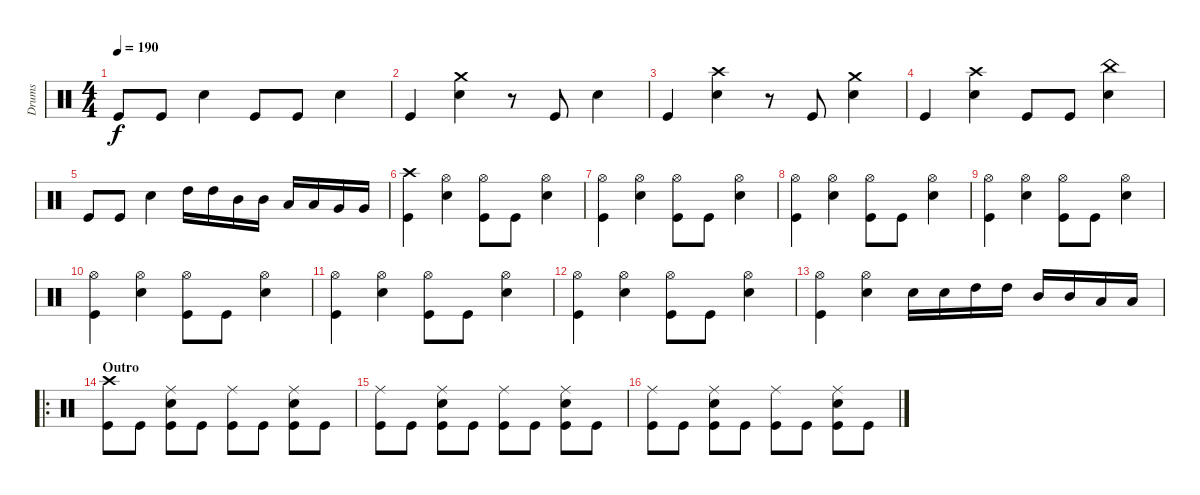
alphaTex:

\track ("Drums" "Drums") {instrument percussion}
\staff {score}
\articulation defaults
\ts (4 4)
\tempo 190
\clef neutral
\ks c "Kick (hit)".8{dy f} "Kick (hit)".8 "Electric Snare (hit)".4 "Kick (hit)".8 "Kick (hit)".8 "Electric Snare (hit)".4
|
"Kick (hit)".4 ("Crash medium (hit)" "Electric Snare (hit)").4 r.8 "Kick (hit)".8 "Electric Snare (hit)".4 |
"Kick (hit)".4 ("Crash high (hit)" "Electric Snare (hit)").4 r.8 "Kick (hit)".8 ("Crash medium (hit)" "Electric Snare (hit)").4 |
"Kick (hit)".4 ("Crash high (hit)" "Electric Snare (hit)").4 "Kick (hit)".8 "Kick (hit)".8 ("China (hit)" "Electric Snare (hit)").4 |
"Kick (hit)".8 "Kick (hit)".8 "Electric Snare (hit)".4 "High Tom (hit)".16 "High Tom (hit)".16 "Mid Tom (hit)".16 "Mid Tom (hit)".16 "Low Tom (hit)".16 "Low Tom (hit)".16 "Very Low Tom (hit)".16 "Very Low Tom (hit)".16 |
("Crash high (hit)" "Kick (hit)").4 ("Hi-Hat (open)" "Electric Snare (hit)").4 ("Hi-Hat (open)" "Kick (hit)").8 "Kick (hit)".8 ("Hi-Hat (open)" "Electric Snare (hit)").4 |
("Hi-Hat (open)" "Kick (hit)").4 ("Hi-Hat (open)" "Electric Snare (hit)").4 ("Hi-Hat (open)" "Kick (hit)").8 "Kick (hit)".8 ("Hi-Hat (open)" "Electric Snare (hit)").4 |
("Hi-Hat (open)" "Kick (hit)").4 ("Hi-Hat (open)" "Electric Snare (hit)").4 ("Hi-Hat (open)" "Kick (hit)").8 "Kick (hit)".8 ("Hi-Hat (open)" "Electric Snare (hit)").4 |
("Hi-Hat (open)" "Kick (hit)").4 ("Hi-Hat (open)" "Electric Snare (hit)").4 ("Hi-Hat (open)" "Kick (hit)").8 "Kick (hit)".8 ("Hi-Hat (open)" "Electric Snare (hit)").4 |
("Hi-Hat (open)" "Kick (hit)").4 ("Hi-Hat (open)" "Electric Snare (hit)").4 ("Hi-Hat (open)" "Kick (hit)").8 "Kick (hit)".8 ("Hi-Hat (open)" "Electric Snare (hit)").4 |
("Hi-Hat (open)" "Kick (hit)").4 ("Hi-Hat (open)" "Electric Snare (hit)").4 ("Hi-Hat (open)" "Kick (hit)").8 "Kick (hit)".8 ("Hi-Hat (open)" "Electric Snare (hit)").4 |
("Hi-Hat (open)" "Kick (hit)").4 ("Hi-Hat (open)" "Electric Snare (hit)").4 ("Hi-Hat (open)" "Kick (hit)").8 "Kick (hit)".8 ("Hi-Hat (open)" "Electric Snare (hit)").4 |
("Hi-Hat (open)" "Kick (hit)").4 ("Hi-Hat (open)" "Electric Snare (hit)").4 "Electric Snare (hit)".16 "Electric Snare (hit)".16 "High Tom (hit)".16 "High Tom (hit)".16 "Mid Tom (hit)".16 "Mid Tom (hit)".16 "Low Tom (hit)".16 "Low Tom (hit)".16 |
\ro
\section ("" "Outro")
("Crash high (hit)" "Kick (hit)").8 "Kick (hit)".8 ("Ride (middle)" "Electric Snare (hit)" "Kick (hit)").8 "Kick (hit)".8 ("Ride (middle)" "Kick (hit)").8 "Kick (hit)".8 ("Ride (middle)" "Electric Snare (hit)" "Kick (hit)").8 "Kick (hit)".8 |
("Ride (middle)" "Kick (hit)").8 "Kick (hit)".8 ("Ride (middle)" "Electric Snare (hit)" "Kick (hit)").8 "Kick (hit)".8 ("Ride (middle)" "Kick (hit)").8 "Kick (hit)".8 ("Ride (middle)" "Electric Snare (hit)" "Kick (hit)").8 "Kick (hit)".8 |
("Ride (middle)" "Kick (hit)").8 "Kick (hit)".8 ("Ride (middle)" "Electric Snare (hit)" "Kick (hit)").8 "Kick (hit)".8 ("Ride (middle)" "Kick (hit)").8 "Kick (hit)".8 ("Ride (middle)" "Electric Snare (hit)" "Kick (hit)").8 "Kick (hit)".8
